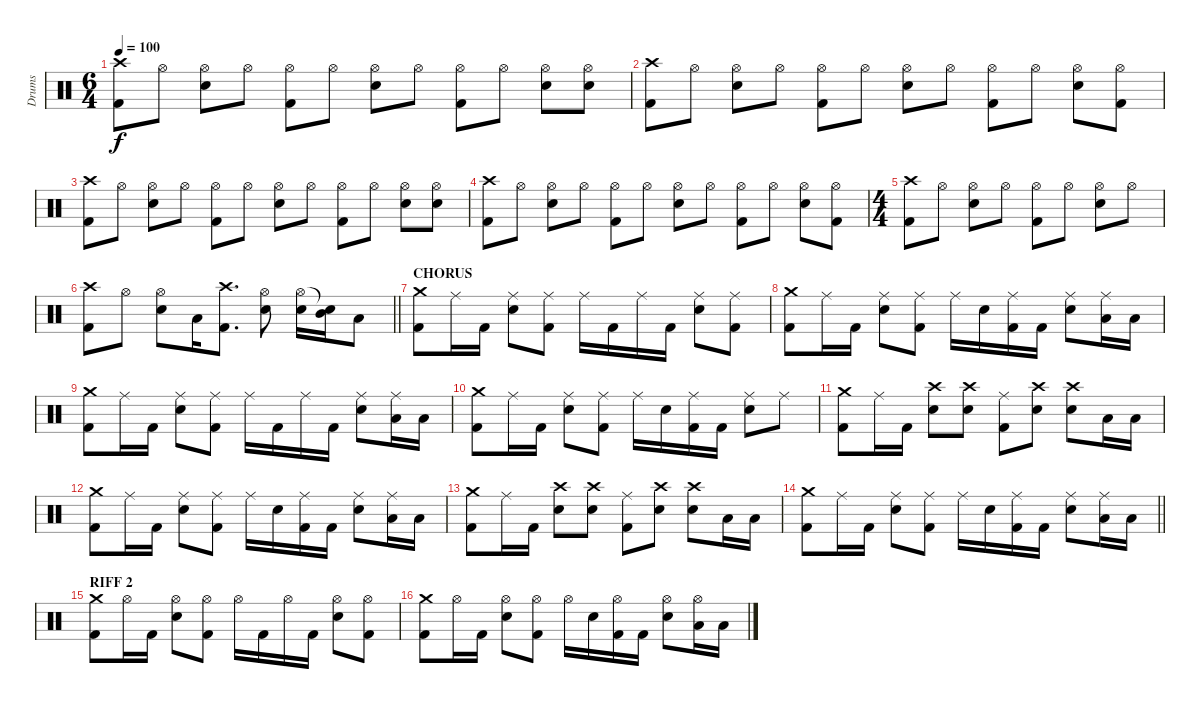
\track ("Drums" "Drums") {instrument percussion}
\staff {score}
\articulation defaults
\ts (6 4)
\tempo 100
\clef neutral
\ks c
("Crash high (hit)" "Kick (hit) 2").8{dy f} "Hi-Hat (open)".8 ("Hi-Hat (open)" "Snare (hit) 2").8 "Hi-Hat (open)".8 ("Hi-Hat (open)" "Kick (hit) 2").8 "Hi-Hat (open)".8 ("Hi-Hat (open)" "Snare (hit) 2").8 "Hi-Hat (open)".8 ("Hi-Hat (open)" "Kick (hit) 2").8 "Hi-Hat (open)".8 ("Hi-Hat (open)" "Snare (hit) 2").8 ("Hi-Hat (open)" "Snare (hit) 2").8 |
("Crash high (hit)" "Kick (hit) 2").8 "Hi-Hat (open)".8 ("Hi-Hat (open)" "Snare (hit) 2").8 "Hi-Hat (open)".8 ("Hi-Hat (open)" "Kick (hit) 2").8 "Hi-Hat (open)".8 ("Hi-Hat (open)" "Snare (hit) 2").8 "Hi-Hat (open)".8 ("Hi-Hat (open)" "Kick (hit) 2").8 "Hi-Hat (open)".8 ("Hi-Hat (open)" "Snare (hit) 2").8 ("Hi-Hat (open)" "Kick (hit) 2").8 |
("Crash high (hit)" "Kick (hit) 2").8 "Hi-Hat (open)".8 ("Hi-Hat (open)" "Snare (hit) 2").8 "Hi-Hat (open)".8 ("Hi-Hat (open)" "Kick (hit) 2").8 "Hi-Hat (open)".8 ("Hi-Hat (open)" "Snare (hit) 2").8 "Hi-Hat (open)".8 ("Hi-Hat (open)" "Kick (hit) 2").8 "Hi-Hat (open)".8 ("Hi-Hat (open)" "Snare (hit) 2").8 ("Hi-Hat (open)" "Snare (hit) 2").8 |
("Crash high (hit)" "Kick (hit) 2").8 "Hi-Hat (open)".8 ("Hi-Hat (open)" "Snare (hit) 2").8 "Hi-Hat (open)".8 ("Hi-Hat (open)" "Kick (hit) 2").8 "Hi-Hat (open)".8 ("Hi-Hat (open)" "Snare (hit) 2").8 "Hi-Hat (open)".8 ("Hi-Hat (open)" "Kick (hit) 2").8 "Hi-Hat (open)".8 ("Hi-Hat (open)" "Snare (hit) 2").8 ("Hi-Hat (open)" "Kick (hit) 2").8 |
\ts (4 4)
("Crash high (hit)" "Kick (hit) 2").8 "Hi-Hat (open)".8 ("Hi-Hat (open)" "Snare (hit) 2").8 "Hi-Hat (open)".8 ("Hi-Hat (open)" "Kick (hit) 2").8 "Hi-Hat (open)".8 ("Hi-Hat (open)" "Snare (hit) 2").8 "Hi-Hat (open)".8 |
\barLineRight lightlight
("Crash high (hit)" "Kick (hit) 2").8 "Hi-Hat (open)".8 ("Hi-Hat (open)" "Snare (hit) 2").8 "Low Tom (hit)".16 ("Crash high (hit)" "Kick (hit) 2").8{d} ("Hi-Hat (open)" "Snare (hit) 2").8 ("Hi-Hat (open)" "Snare (hit) 2").16 ("Snare (hit)"{t} "Mid Tom (hit)").16 "Low Tom (hit)".8 |
\section ("" "CHORUS")
("Crash medium (hit)" "Kick (hit) 2").8 "Ride (middle)".16 "Kick (hit) 2".16 ("Ride (middle)" "Snare (hit) 2").8 ("Ride (middle)" "Kick (hit) 2").8 "Ride (middle)".16 "Kick (hit) 2".16 "Ride (middle)".16 "Kick (hit) 2".16 ("Ride (middle)" "Snare (hit) 2").8 ("Ride (middle)" "Kick (hit) 2").8 |
("Crash medium (hit)" "Kick (hit) 2").8 "Ride (middle)".16 "Kick (hit) 2".16 ("Ride (middle)" "Snare (hit) 2").8 ("Ride (middle)" "Kick (hit) 2").8 "Ride (middle)".16 "Snare (hit) 2".16 ("Ride (middle)" "Kick (hit) 2").16 "Kick (hit) 2".16 ("Ride (middle)" "Snare (hit) 2").8 ("Ride (middle)" "Low Tom (hit)").16 "Low Tom (hit)".16 |
("Crash medium (hit)" "Kick (hit) 2").8 "Ride (middle)".16 "Kick (hit) 2".16 ("Ride (middle)" "Snare (hit) 2").8 ("Ride (middle)" "Kick (hit) 2").8 "Ride (middle)".16 "Kick (hit) 2".16 "Ride (middle)".16 "Kick (hit) 2".16 ("Ride (middle)" "Snare (hit) 2").8 ("Ride (middle)" "Low Tom (hit)").16 "Low Tom (hit)".16 |
("Crash medium (hit)" "Kick (hit) 2").8 "Ride (middle)".16 "Kick (hit) 2".16 ("Ride (middle)" "Snare (hit) 2").8 ("Ride (middle)" "Kick (hit) 2").8 "Ride (middle)".16 "Snare (hit) 2".16 ("Ride (middle)" "Kick (hit) 2").16 "Kick (hit) 2".16 ("Ride (middle)" "Snare (hit) 2").8 "Ride (middle)".8 |
("Crash medium (hit)" "Kick (hit) 2").8 "Ride (middle)".16 "Kick (hit) 2".16 ("Crash high (hit)" "Snare (hit) 2").8 ("Crash high (hit)" "Snare (hit) 2").8 ("Ride (middle)" "Kick (hit) 2").8 ("Crash high (hit)" "Snare (hit) 2").8 ("Crash high (hit)" "Snare (hit) 2").8 "Low Tom (hit)".16 "Low Tom (hit)".16 |
("Crash medium (hit)" "Kick (hit) 2").8 "Ride (middle)".16 "Kick (hit) 2".16 ("Ride (middle)" "Snare (hit) 2").8 ("Ride (middle)" "Kick (hit) 2").8 "Ride (middle)".16 "Snare (hit) 2".16 ("Ride (middle)" "Kick (hit) 2").16 "Kick (hit) 2".16 ("Ride (middle)" "Snare (hit) 2").8 ("Ride (middle)" "Low Tom (hit)").16 "Low Tom (hit)".16 |
("Crash medium (hit)" "Kick (hit) 2").8 "Ride (middle)".16 "Kick (hit) 2".16 ("Crash high (hit)" "Snare (hit) 2").8 ("Crash high (hit)" "Snare (hit) 2").8 ("Ride (middle)" "Kick (hit) 2").8 ("Crash high (hit)" "Snare (hit) 2").8 ("Crash high (hit)" "Snare (hit) 2").8 "Low Tom (hit)".16 "Low Tom (hit)".16 |
\barLineRight lightlight
("Crash medium (hit)" "Kick (hit) 2").8 "Ride (middle)".16 "Kick (hit) 2".16 ("Ride (middle)" "Snare (hit) 2").8 ("Ride (middle)" "Kick (hit) 2").8 "Ride (middle)".16 "Snare (hit) 2".16 ("Ride (middle)" "Kick (hit) 2").16 "Kick (hit) 2".16 ("Ride (middle)" "Snare (hit) 2").8 ("Ride (middle)" "Low Tom (hit)").16 "Low Tom (hit)".16 |
\section ("" "RIFF 2")
("Crash medium (hit)" "Kick (hit) 2").8 "Hi-Hat (open)".16 "Kick (hit) 2".16 ("Hi-Hat (open)" "Snare (hit) 2").8 ("Hi-Hat (open)" "Kick (hit) 2").8 "Hi-Hat (open)".16 "Kick (hit) 2".16 "Hi-Hat (open)".16 "Kick (hit) 2".16 ("Hi-Hat (open)" "Snare (hit) 2").8 ("Hi-Hat (open)" "Kick (hit) 2").8 |
("Crash medium (hit)" "Kick (hit) 2").8 "Hi-Hat (open)".16 "Kick (hit) 2".16 ("Hi-Hat (open)" "Snare (hit) 2").8 ("Hi-Hat (open)" "Kick (hit) 2").8 "Hi-Hat (open)".16 "Snare (hit) 2".16 ("Hi-Hat (open)" "Kick (hit) 2").16 "Kick (hit) 2".16 ("Hi-Hat (open)" "Snare (hit) 2").8 ("Hi-Hat (open)" "Low Tom (hit)").16 "Low Tom (hit)".16
